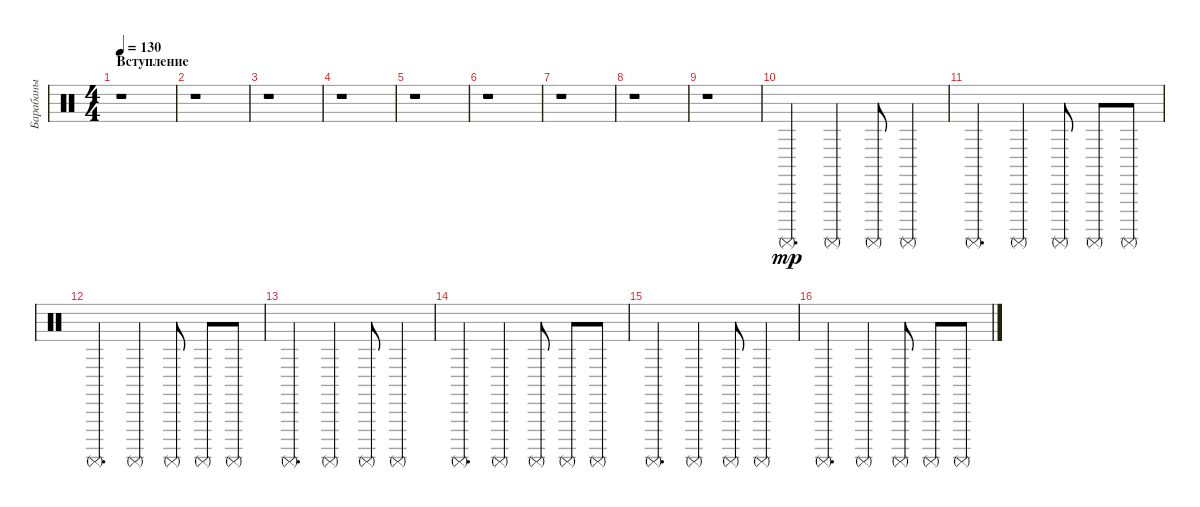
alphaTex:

\track ("Барабаны" "Барабаны") {instrument percussion}
\staff {score}
\articulation defaults
\ts (4 4)
\section ("" "Вступление")
\tempo 130
\clef neutral
\ks c
r.1{dy mp} |
r.1 |
r.1 |
r.1 |
r.1 |
r.1 |
r.1 |
r.1 |
r.1 |
"Surdo (mute)".4{d} "Surdo (mute)".4 "Surdo (mute)".8 "Surdo (mute)".4 |
"Surdo (mute)".4{d} "Surdo (mute)".4 "Surdo (mute)".8 "Surdo (mute)".8 "Surdo (mute)".8 |
"Surdo (mute)".4{d} "Surdo (mute)".4 "Surdo (mute)".8 "Surdo (mute)".8 "Surdo (mute)".8 |
"Surdo (mute)".4{d} "Surdo (mute)".4 "Surdo (mute)".8 "Surdo (mute)".4 |
"Surdo (mute)".4{d} "Surdo (mute)".4 "Surdo (mute)".8 "Surdo (mute)".8 "Surdo (mute)".8 |
"Surdo (mute)".4{d} "Surdo (mute)".4 "Surdo (mute)".8 "Surdo (mute)".4 |
"Surdo (mute)".4{d} "Surdo (mute)".4 "Surdo (mute)".8 "Surdo (mute)".8 "Surdo (mute)".8
